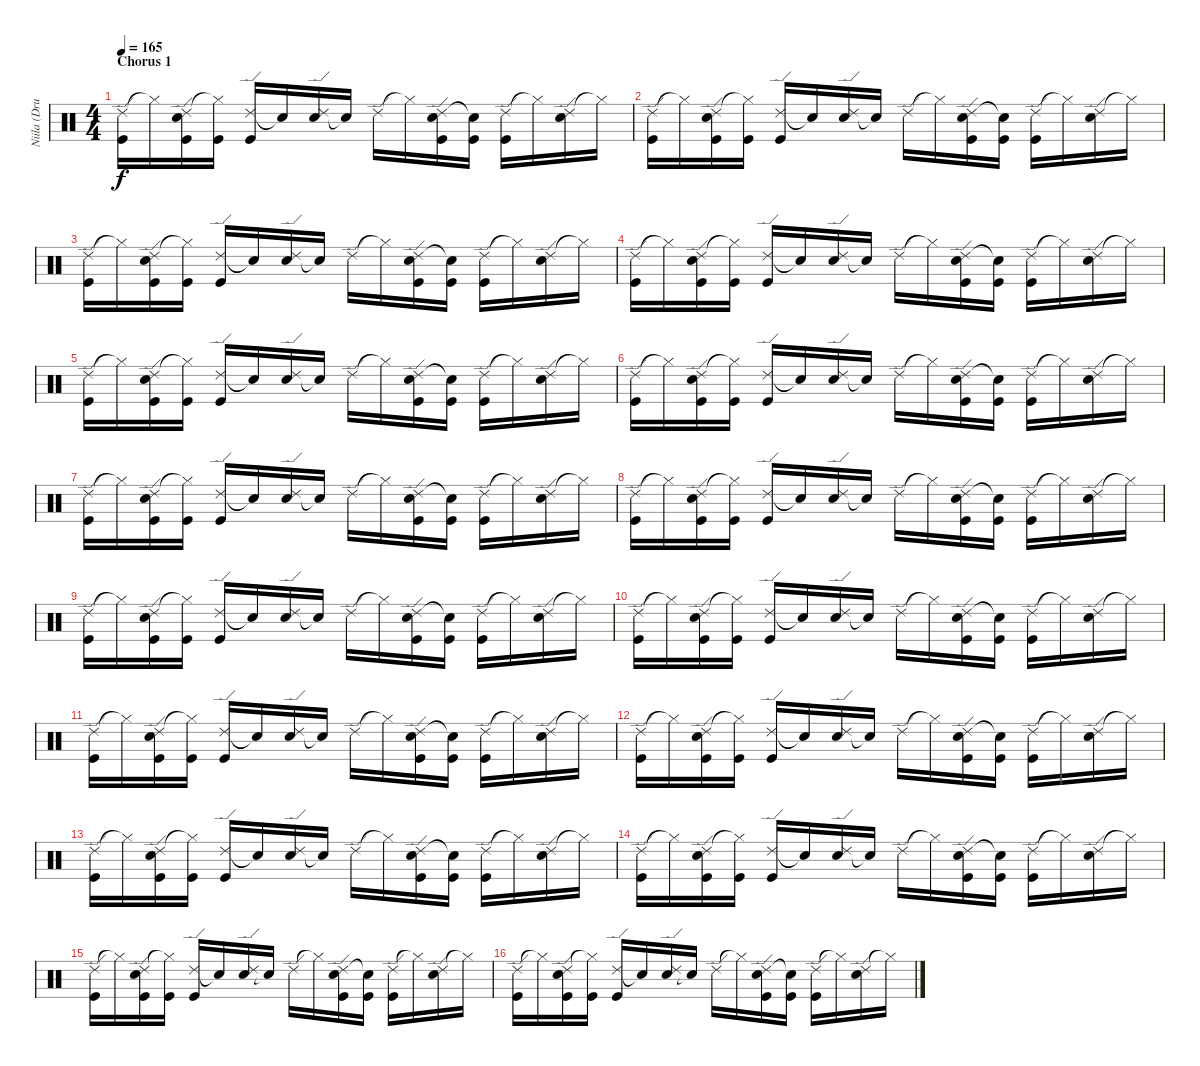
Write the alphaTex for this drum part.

\track ("Niila (Drums)" "Niila (Dru") {instrument percussion}
\staff {score}
\articulation defaults
\ts (4 4)
\section ("" "Chorus 1")
\tempo 165
\clef neutral
\ks c
("Ride (edge) 2" "Kick (hit)").16{dy f} "Hi-Hat (closed)"{t}.16 ("Ride (edge) 2" "Snare (hit) 2" "Kick (hit)").16 ("Hi-Hat (closed)"{t} "Kick (hit)").16 ("Ride (edge) 2" "Kick (hit)").16 "Snare (hit)"{t}.16 ("Ride (edge) 2" "Snare (hit) 2").16 "Snare (hit)"{t}.16 "Ride (edge) 2".16 "Hi-Hat (closed)"{t}.16 ("Ride (edge) 2" "Snare (hit) 2" "Kick (hit)").16 ("Snare (hit)"{t} "Kick (hit)").16 ("Ride (edge) 2" "Kick (hit)").16 "Hi-Hat (closed)"{t}.16 ("Ride (edge) 2" "Snare (hit) 2").16 "Hi-Hat (closed)"{t}.16 |
("Ride (edge) 2" "Kick (hit)").16 "Hi-Hat (closed)"{t}.16 ("Ride (edge) 2" "Snare (hit) 2" "Kick (hit)").16 ("Hi-Hat (closed)"{t} "Kick (hit)").16 ("Ride (edge) 2" "Kick (hit)").16 "Snare (hit)"{t}.16 ("Ride (edge) 2" "Snare (hit) 2").16 "Snare (hit)"{t}.16 "Ride (edge) 2".16 "Hi-Hat (closed)"{t}.16 ("Ride (edge) 2" "Snare (hit) 2" "Kick (hit)").16 ("Snare (hit)"{t} "Kick (hit)").16 ("Ride (edge) 2" "Kick (hit)").16 "Hi-Hat (closed)"{t}.16 ("Ride (edge) 2" "Snare (hit) 2").16 "Hi-Hat (closed)"{t}.16 |
("Ride (edge) 2" "Kick (hit)").16 "Hi-Hat (closed)"{t}.16 ("Ride (edge) 2" "Snare (hit) 2" "Kick (hit)").16 ("Hi-Hat (closed)"{t} "Kick (hit)").16 ("Ride (edge) 2" "Kick (hit)").16 "Snare (hit)"{t}.16 ("Ride (edge) 2" "Snare (hit) 2").16 "Snare (hit)"{t}.16 "Ride (edge) 2".16 "Hi-Hat (closed)"{t}.16 ("Ride (edge) 2" "Snare (hit) 2" "Kick (hit)").16 ("Snare (hit)"{t} "Kick (hit)").16 ("Ride (edge) 2" "Kick (hit)").16 "Hi-Hat (closed)"{t}.16 ("Ride (edge) 2" "Snare (hit) 2").16 "Hi-Hat (closed)"{t}.16 |
("Ride (edge) 2" "Kick (hit)").16 "Hi-Hat (closed)"{t}.16 ("Ride (edge) 2" "Snare (hit) 2" "Kick (hit)").16 ("Hi-Hat (closed)"{t} "Kick (hit)").16 ("Ride (edge) 2" "Kick (hit)").16 "Snare (hit)"{t}.16 ("Ride (edge) 2" "Snare (hit) 2").16 "Snare (hit)"{t}.16 "Ride (edge) 2".16 "Hi-Hat (closed)"{t}.16 ("Ride (edge) 2" "Snare (hit) 2" "Kick (hit)").16 ("Snare (hit)"{t} "Kick (hit)").16 ("Ride (edge) 2" "Kick (hit)").16 "Hi-Hat (closed)"{t}.16 ("Ride (edge) 2" "Snare (hit) 2").16 "Hi-Hat (closed)"{t}.16 |
("Ride (edge) 2" "Kick (hit)").16 "Hi-Hat (closed)"{t}.16 ("Ride (edge) 2" "Snare (hit) 2" "Kick (hit)").16 ("Hi-Hat (closed)"{t} "Kick (hit)").16 ("Ride (edge) 2" "Kick (hit)").16 "Snare (hit)"{t}.16 ("Ride (edge) 2" "Snare (hit) 2").16 "Snare (hit)"{t}.16 "Ride (edge) 2".16 "Hi-Hat (closed)"{t}.16 ("Ride (edge) 2" "Snare (hit) 2" "Kick (hit)").16 ("Snare (hit)"{t} "Kick (hit)").16 ("Ride (edge) 2" "Kick (hit)").16 "Hi-Hat (closed)"{t}.16 ("Ride (edge) 2" "Snare (hit) 2").16 "Hi-Hat (closed)"{t}.16 |
("Ride (edge) 2" "Kick (hit)").16 "Hi-Hat (closed)"{t}.16 ("Ride (edge) 2" "Snare (hit) 2" "Kick (hit)").16 ("Hi-Hat (closed)"{t} "Kick (hit)").16 ("Ride (edge) 2" "Kick (hit)").16 "Snare (hit)"{t}.16 ("Ride (edge) 2" "Snare (hit) 2").16 "Snare (hit)"{t}.16 "Ride (edge) 2".16 "Hi-Hat (closed)"{t}.16 ("Ride (edge) 2" "Snare (hit) 2" "Kick (hit)").16 ("Snare (hit)"{t} "Kick (hit)").16 ("Ride (edge) 2" "Kick (hit)").16 "Hi-Hat (closed)"{t}.16 ("Ride (edge) 2" "Snare (hit) 2").16 "Hi-Hat (closed)"{t}.16 |
("Ride (edge) 2" "Kick (hit)").16 "Hi-Hat (closed)"{t}.16 ("Ride (edge) 2" "Snare (hit) 2" "Kick (hit)").16 ("Hi-Hat (closed)"{t} "Kick (hit)").16 ("Ride (edge) 2" "Kick (hit)").16 "Snare (hit)"{t}.16 ("Ride (edge) 2" "Snare (hit) 2").16 "Snare (hit)"{t}.16 "Ride (edge) 2".16 "Hi-Hat (closed)"{t}.16 ("Ride (edge) 2" "Snare (hit) 2" "Kick (hit)").16 ("Snare (hit)"{t} "Kick (hit)").16 ("Ride (edge) 2" "Kick (hit)").16 "Hi-Hat (closed)"{t}.16 ("Ride (edge) 2" "Snare (hit) 2").16 "Hi-Hat (closed)"{t}.16 |
("Ride (edge) 2" "Kick (hit)").16 "Hi-Hat (closed)"{t}.16 ("Ride (edge) 2" "Snare (hit) 2" "Kick (hit)").16 ("Hi-Hat (closed)"{t} "Kick (hit)").16 ("Ride (edge) 2" "Kick (hit)").16 "Snare (hit)"{t}.16 ("Ride (edge) 2" "Snare (hit) 2").16 "Snare (hit)"{t}.16 "Ride (edge) 2".16 "Hi-Hat (closed)"{t}.16 ("Ride (edge) 2" "Snare (hit) 2" "Kick (hit)").16 ("Snare (hit)"{t} "Kick (hit)").16 ("Ride (edge) 2" "Kick (hit)").16 "Hi-Hat (closed)"{t}.16 ("Ride (edge) 2" "Snare (hit) 2").16 "Hi-Hat (closed)"{t}.16 |
("Ride (edge) 2" "Kick (hit)").16 "Hi-Hat (closed)"{t}.16 ("Ride (edge) 2" "Snare (hit) 2" "Kick (hit)").16 ("Hi-Hat (closed)"{t} "Kick (hit)").16 ("Ride (edge) 2" "Kick (hit)").16 "Snare (hit)"{t}.16 ("Ride (edge) 2" "Snare (hit) 2").16 "Snare (hit)"{t}.16 "Ride (edge) 2".16 "Hi-Hat (closed)"{t}.16 ("Ride (edge) 2" "Snare (hit) 2" "Kick (hit)").16 ("Snare (hit)"{t} "Kick (hit)").16 ("Ride (edge) 2" "Kick (hit)").16 "Hi-Hat (closed)"{t}.16 ("Ride (edge) 2" "Snare (hit) 2").16 "Hi-Hat (closed)"{t}.16 |
("Ride (edge) 2" "Kick (hit)").16 "Hi-Hat (closed)"{t}.16 ("Ride (edge) 2" "Snare (hit) 2" "Kick (hit)").16 ("Hi-Hat (closed)"{t} "Kick (hit)").16 ("Ride (edge) 2" "Kick (hit)").16 "Snare (hit)"{t}.16 ("Ride (edge) 2" "Snare (hit) 2").16 "Snare (hit)"{t}.16 "Ride (edge) 2".16 "Hi-Hat (closed)"{t}.16 ("Ride (edge) 2" "Snare (hit) 2" "Kick (hit)").16 ("Snare (hit)"{t} "Kick (hit)").16 ("Ride (edge) 2" "Kick (hit)").16 "Hi-Hat (closed)"{t}.16 ("Ride (edge) 2" "Snare (hit) 2").16 "Hi-Hat (closed)"{t}.16 |
("Ride (edge) 2" "Kick (hit)").16 "Hi-Hat (closed)"{t}.16 ("Ride (edge) 2" "Snare (hit) 2" "Kick (hit)").16 ("Hi-Hat (closed)"{t} "Kick (hit)").16 ("Ride (edge) 2" "Kick (hit)").16 "Snare (hit)"{t}.16 ("Ride (edge) 2" "Snare (hit) 2").16 "Snare (hit)"{t}.16 "Ride (edge) 2".16 "Hi-Hat (closed)"{t}.16 ("Ride (edge) 2" "Snare (hit) 2" "Kick (hit)").16 ("Snare (hit)"{t} "Kick (hit)").16 ("Ride (edge) 2" "Kick (hit)").16 "Hi-Hat (closed)"{t}.16 ("Ride (edge) 2" "Snare (hit) 2").16 "Hi-Hat (closed)"{t}.16 |
("Ride (edge) 2" "Kick (hit)").16 "Hi-Hat (closed)"{t}.16 ("Ride (edge) 2" "Snare (hit) 2" "Kick (hit)").16 ("Hi-Hat (closed)"{t} "Kick (hit)").16 ("Ride (edge) 2" "Kick (hit)").16 "Snare (hit)"{t}.16 ("Ride (edge) 2" "Snare (hit) 2").16 "Snare (hit)"{t}.16 "Ride (edge) 2".16 "Hi-Hat (closed)"{t}.16 ("Ride (edge) 2" "Snare (hit) 2" "Kick (hit)").16 ("Snare (hit)"{t} "Kick (hit)").16 ("Ride (edge) 2" "Kick (hit)").16 "Hi-Hat (closed)"{t}.16 ("Ride (edge) 2" "Snare (hit) 2").16 "Hi-Hat (closed)"{t}.16 |
("Ride (edge) 2" "Kick (hit)").16 "Hi-Hat (closed)"{t}.16 ("Ride (edge) 2" "Snare (hit) 2" "Kick (hit)").16 ("Hi-Hat (closed)"{t} "Kick (hit)").16 ("Ride (edge) 2" "Kick (hit)").16 "Snare (hit)"{t}.16 ("Ride (edge) 2" "Snare (hit) 2").16 "Snare (hit)"{t}.16 "Ride (edge) 2".16 "Hi-Hat (closed)"{t}.16 ("Ride (edge) 2" "Snare (hit) 2" "Kick (hit)").16 ("Snare (hit)"{t} "Kick (hit)").16 ("Ride (edge) 2" "Kick (hit)").16 "Hi-Hat (closed)"{t}.16 ("Ride (edge) 2" "Snare (hit) 2").16 "Hi-Hat (closed)"{t}.16 |
("Ride (edge) 2" "Kick (hit)").16 "Hi-Hat (closed)"{t}.16 ("Ride (edge) 2" "Snare (hit) 2" "Kick (hit)").16 ("Hi-Hat (closed)"{t} "Kick (hit)").16 ("Ride (edge) 2" "Kick (hit)").16 "Snare (hit)"{t}.16 ("Ride (edge) 2" "Snare (hit) 2").16 "Snare (hit)"{t}.16 "Ride (edge) 2".16 "Hi-Hat (closed)"{t}.16 ("Ride (edge) 2" "Snare (hit) 2" "Kick (hit)").16 ("Snare (hit)"{t} "Kick (hit)").16 ("Ride (edge) 2" "Kick (hit)").16 "Hi-Hat (closed)"{t}.16 ("Ride (edge) 2" "Snare (hit) 2").16 "Hi-Hat (closed)"{t}.16 |
("Ride (edge) 2" "Kick (hit)").16 "Hi-Hat (closed)"{t}.16 ("Ride (edge) 2" "Snare (hit) 2" "Kick (hit)").16 ("Hi-Hat (closed)"{t} "Kick (hit)").16 ("Ride (edge) 2" "Kick (hit)").16 "Snare (hit)"{t}.16 ("Ride (edge) 2" "Snare (hit) 2").16 "Snare (hit)"{t}.16 "Ride (edge) 2".16 "Hi-Hat (closed)"{t}.16 ("Ride (edge) 2" "Snare (hit) 2" "Kick (hit)").16 ("Snare (hit)"{t} "Kick (hit)").16 ("Ride (edge) 2" "Kick (hit)").16 "Hi-Hat (closed)"{t}.16 ("Ride (edge) 2" "Snare (hit) 2").16 "Hi-Hat (closed)"{t}.16 |
("Ride (edge) 2" "Kick (hit)").16 "Hi-Hat (closed)"{t}.16 ("Ride (edge) 2" "Snare (hit) 2" "Kick (hit)").16 ("Hi-Hat (closed)"{t} "Kick (hit)").16 ("Ride (edge) 2" "Kick (hit)").16 "Snare (hit)"{t}.16 ("Ride (edge) 2" "Snare (hit) 2").16 "Snare (hit)"{t}.16 "Ride (edge) 2".16 "Hi-Hat (closed)"{t}.16 ("Ride (edge) 2" "Snare (hit) 2" "Kick (hit)").16 ("Snare (hit)"{t} "Kick (hit)").16 ("Ride (edge) 2" "Kick (hit)").16 "Hi-Hat (closed)"{t}.16 ("Ride (edge) 2" "Snare (hit) 2").16 "Hi-Hat (closed)"{t}.16
